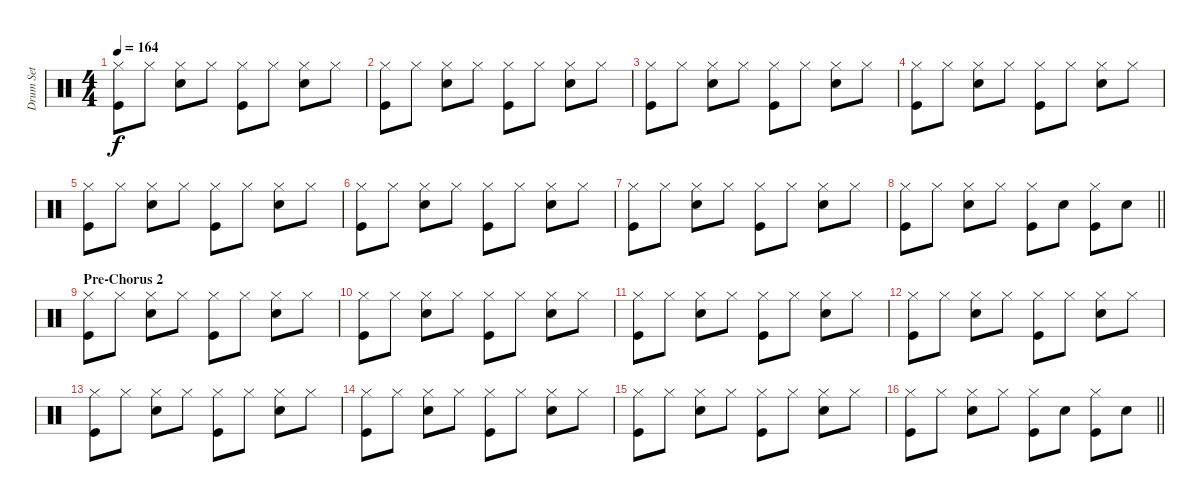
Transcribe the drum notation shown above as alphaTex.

\track ("Drum Set" "Drum Set") {instrument percussion}
\staff {score}
\articulation defaults
\ts (4 4)
\tempo 164
\clef neutral
\ks c
("Kick (hit)" "Hi-Hat (closed)").8{dy f} "Hi-Hat (closed)".8 ("Electric Snare (hit)" "Hi-Hat (closed)").8 "Hi-Hat (closed)".8 ("Kick (hit)" "Hi-Hat (closed)").8 "Hi-Hat (closed)".8 ("Electric Snare (hit)" "Hi-Hat (closed)").8 "Hi-Hat (closed)".8 |
("Kick (hit)" "Hi-Hat (closed)").8 "Hi-Hat (closed)".8 ("Electric Snare (hit)" "Hi-Hat (closed)").8 "Hi-Hat (closed)".8 ("Kick (hit)" "Hi-Hat (closed)").8 "Hi-Hat (closed)".8 ("Electric Snare (hit)" "Hi-Hat (closed)").8 "Hi-Hat (closed)".8 |
("Kick (hit)" "Hi-Hat (closed)").8 "Hi-Hat (closed)".8 ("Electric Snare (hit)" "Hi-Hat (closed)").8 "Hi-Hat (closed)".8 ("Kick (hit)" "Hi-Hat (closed)").8 "Hi-Hat (closed)".8 ("Electric Snare (hit)" "Hi-Hat (closed)").8 "Hi-Hat (closed)".8 |
("Kick (hit)" "Hi-Hat (closed)").8 "Hi-Hat (closed)".8 ("Electric Snare (hit)" "Hi-Hat (closed)").8 "Hi-Hat (closed)".8 ("Kick (hit)" "Hi-Hat (closed)").8 "Hi-Hat (closed)".8 ("Electric Snare (hit)" "Hi-Hat (closed)").8 "Hi-Hat (closed)".8 |
("Kick (hit)" "Hi-Hat (closed)").8 "Hi-Hat (closed)".8 ("Electric Snare (hit)" "Hi-Hat (closed)").8 "Hi-Hat (closed)".8 ("Kick (hit)" "Hi-Hat (closed)").8 "Hi-Hat (closed)".8 ("Electric Snare (hit)" "Hi-Hat (closed)").8 "Hi-Hat (closed)".8 |
("Kick (hit)" "Hi-Hat (closed)").8 "Hi-Hat (closed)".8 ("Electric Snare (hit)" "Hi-Hat (closed)").8 "Hi-Hat (closed)".8 ("Kick (hit)" "Hi-Hat (closed)").8 "Hi-Hat (closed)".8 ("Electric Snare (hit)" "Hi-Hat (closed)").8 "Hi-Hat (closed)".8 |
("Kick (hit)" "Hi-Hat (closed)").8 "Hi-Hat (closed)".8 ("Electric Snare (hit)" "Hi-Hat (closed)").8 "Hi-Hat (closed)".8 ("Kick (hit)" "Hi-Hat (closed)").8 "Hi-Hat (closed)".8 ("Electric Snare (hit)" "Hi-Hat (closed)").8 "Hi-Hat (closed)".8 |
\barLineRight lightlight
("Kick (hit)" "Hi-Hat (closed)").8 "Hi-Hat (closed)".8 ("Electric Snare (hit)" "Hi-Hat (closed)").8 "Hi-Hat (closed)".8 ("Kick (hit)" "Hi-Hat (closed)").8 "Electric Snare (hit)".8 ("Kick (hit)" "Hi-Hat (closed)").8 "Electric Snare (hit)".8 |
\section ("" "Pre-Chorus 2")
("Kick (hit)" "Hi-Hat (closed)").8 "Hi-Hat (closed)".8 ("Electric Snare (hit)" "Hi-Hat (closed)").8 "Hi-Hat (closed)".8 ("Kick (hit)" "Hi-Hat (closed)").8 "Hi-Hat (closed)".8 ("Electric Snare (hit)" "Hi-Hat (closed)").8 "Hi-Hat (closed)".8 |
("Kick (hit)" "Hi-Hat (closed)").8 "Hi-Hat (closed)".8 ("Electric Snare (hit)" "Hi-Hat (closed)").8 "Hi-Hat (closed)".8 ("Kick (hit)" "Hi-Hat (closed)").8 "Hi-Hat (closed)".8 ("Electric Snare (hit)" "Hi-Hat (closed)").8 "Hi-Hat (closed)".8 |
("Kick (hit)" "Hi-Hat (closed)").8 "Hi-Hat (closed)".8 ("Electric Snare (hit)" "Hi-Hat (closed)").8 "Hi-Hat (closed)".8 ("Kick (hit)" "Hi-Hat (closed)").8 "Hi-Hat (closed)".8 ("Electric Snare (hit)" "Hi-Hat (closed)").8 "Hi-Hat (closed)".8 |
("Kick (hit)" "Hi-Hat (closed)").8 "Hi-Hat (closed)".8 ("Electric Snare (hit)" "Hi-Hat (closed)").8 "Hi-Hat (closed)".8 ("Kick (hit)" "Hi-Hat (closed)").8 "Hi-Hat (closed)".8 ("Electric Snare (hit)" "Hi-Hat (closed)").8 "Hi-Hat (closed)".8 |
("Kick (hit)" "Hi-Hat (closed)").8 "Hi-Hat (closed)".8 ("Electric Snare (hit)" "Hi-Hat (closed)").8 "Hi-Hat (closed)".8 ("Kick (hit)" "Hi-Hat (closed)").8 "Hi-Hat (closed)".8 ("Electric Snare (hit)" "Hi-Hat (closed)").8 "Hi-Hat (closed)".8 |
("Kick (hit)" "Hi-Hat (closed)").8 "Hi-Hat (closed)".8 ("Electric Snare (hit)" "Hi-Hat (closed)").8 "Hi-Hat (closed)".8 ("Kick (hit)" "Hi-Hat (closed)").8 "Hi-Hat (closed)".8 ("Electric Snare (hit)" "Hi-Hat (closed)").8 "Hi-Hat (closed)".8 |
("Kick (hit)" "Hi-Hat (closed)").8 "Hi-Hat (closed)".8 ("Electric Snare (hit)" "Hi-Hat (closed)").8 "Hi-Hat (closed)".8 ("Kick (hit)" "Hi-Hat (closed)").8 "Hi-Hat (closed)".8 ("Electric Snare (hit)" "Hi-Hat (closed)").8 "Hi-Hat (closed)".8 |
\barLineRight lightlight
("Kick (hit)" "Hi-Hat (closed)").8 "Hi-Hat (closed)".8 ("Electric Snare (hit)" "Hi-Hat (closed)").8 "Hi-Hat (closed)".8 ("Kick (hit)" "Hi-Hat (closed)").8 "Electric Snare (hit)".8 ("Kick (hit)" "Hi-Hat (closed)").8 "Electric Snare (hit)".8
